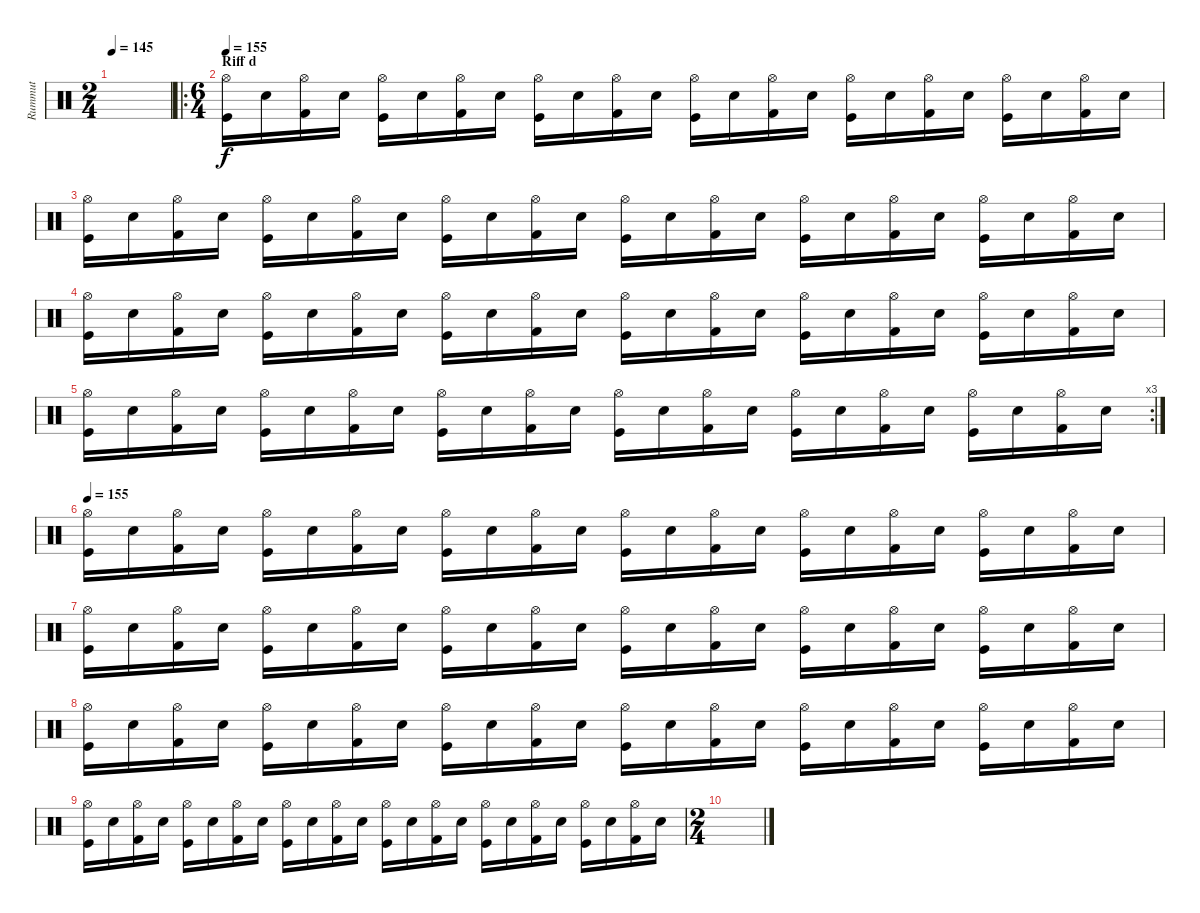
\track ("Rummut" "Rummut") {instrument percussion}
\staff {score}
\articulation defaults
\ts (2 4)
\tempo 145
\clef neutral
\ks c
|
\ro
\ts (6 4)
\section ("" "Riff d")
\tempo 155
("Hi-Hat (open)" "Kick (hit)").16 "Snare (hit) 2".16 ("Hi-Hat (open)" "Kick (hit) 2").16 "Snare (hit) 2".16 ("Hi-Hat (open)" "Kick (hit)").16 "Snare (hit) 2".16 ("Hi-Hat (open)" "Kick (hit) 2").16 "Snare (hit) 2".16 ("Hi-Hat (open)" "Kick (hit)").16 "Snare (hit) 2".16 ("Hi-Hat (open)" "Kick (hit) 2").16 "Snare (hit) 2".16 ("Hi-Hat (open)" "Kick (hit)").16 "Snare (hit) 2".16 ("Hi-Hat (open)" "Kick (hit) 2").16 "Snare (hit) 2".16 ("Hi-Hat (open)" "Kick (hit)").16 "Snare (hit) 2".16 ("Hi-Hat (open)" "Kick (hit) 2").16 "Snare (hit) 2".16 ("Hi-Hat (open)" "Kick (hit)").16 "Snare (hit) 2".16 ("Hi-Hat (open)" "Kick (hit) 2").16 "Snare (hit) 2".16 |
("Hi-Hat (open)" "Kick (hit)").16 "Snare (hit) 2".16 ("Hi-Hat (open)" "Kick (hit) 2").16 "Snare (hit) 2".16 ("Hi-Hat (open)" "Kick (hit)").16 "Snare (hit) 2".16 ("Hi-Hat (open)" "Kick (hit) 2").16 "Snare (hit) 2".16 ("Hi-Hat (open)" "Kick (hit)").16 "Snare (hit) 2".16 ("Hi-Hat (open)" "Kick (hit) 2").16 "Snare (hit) 2".16 ("Hi-Hat (open)" "Kick (hit)").16 "Snare (hit) 2".16 ("Hi-Hat (open)" "Kick (hit) 2").16 "Snare (hit) 2".16 ("Hi-Hat (open)" "Kick (hit)").16 "Snare (hit) 2".16 ("Hi-Hat (open)" "Kick (hit) 2").16 "Snare (hit) 2".16 ("Hi-Hat (open)" "Kick (hit)").16 "Snare (hit) 2".16 ("Hi-Hat (open)" "Kick (hit) 2").16 "Snare (hit) 2".16 |
("Hi-Hat (open)" "Kick (hit)").16 "Snare (hit) 2".16 ("Hi-Hat (open)" "Kick (hit) 2").16 "Snare (hit) 2".16 ("Hi-Hat (open)" "Kick (hit)").16 "Snare (hit) 2".16 ("Hi-Hat (open)" "Kick (hit) 2").16 "Snare (hit) 2".16 ("Hi-Hat (open)" "Kick (hit)").16 "Snare (hit) 2".16 ("Hi-Hat (open)" "Kick (hit) 2").16 "Snare (hit) 2".16 ("Hi-Hat (open)" "Kick (hit)").16 "Snare (hit) 2".16 ("Hi-Hat (open)" "Kick (hit) 2").16 "Snare (hit) 2".16 ("Hi-Hat (open)" "Kick (hit)").16 "Snare (hit) 2".16 ("Hi-Hat (open)" "Kick (hit) 2").16 "Snare (hit) 2".16 ("Hi-Hat (open)" "Kick (hit)").16 "Snare (hit) 2".16 ("Hi-Hat (open)" "Kick (hit) 2").16 "Snare (hit) 2".16 |
\rc 3
("Hi-Hat (open)" "Kick (hit)").16 "Snare (hit) 2".16 ("Hi-Hat (open)" "Kick (hit) 2").16 "Snare (hit) 2".16 ("Hi-Hat (open)" "Kick (hit)").16 "Snare (hit) 2".16 ("Hi-Hat (open)" "Kick (hit) 2").16 "Snare (hit) 2".16 ("Hi-Hat (open)" "Kick (hit)").16 "Snare (hit) 2".16 ("Hi-Hat (open)" "Kick (hit) 2").16 "Snare (hit) 2".16 ("Hi-Hat (open)" "Kick (hit)").16 "Snare (hit) 2".16 ("Hi-Hat (open)" "Kick (hit) 2").16 "Snare (hit) 2".16 ("Hi-Hat (open)" "Kick (hit)").16 "Snare (hit) 2".16 ("Hi-Hat (open)" "Kick (hit) 2").16 "Snare (hit) 2".16 ("Hi-Hat (open)" "Kick (hit)").16 "Snare (hit) 2".16 ("Hi-Hat (open)" "Kick (hit) 2").16 "Snare (hit) 2".16 |
\tempo 155
("Hi-Hat (open)" "Kick (hit)").16 "Snare (hit) 2".16 ("Hi-Hat (open)" "Kick (hit) 2").16 "Snare (hit) 2".16 ("Hi-Hat (open)" "Kick (hit)").16 "Snare (hit) 2".16 ("Hi-Hat (open)" "Kick (hit) 2").16 "Snare (hit) 2".16 ("Hi-Hat (open)" "Kick (hit)").16 "Snare (hit) 2".16 ("Hi-Hat (open)" "Kick (hit) 2").16 "Snare (hit) 2".16 ("Hi-Hat (open)" "Kick (hit)").16 "Snare (hit) 2".16 ("Hi-Hat (open)" "Kick (hit) 2").16 "Snare (hit) 2".16 ("Hi-Hat (open)" "Kick (hit)").16 "Snare (hit) 2".16 ("Hi-Hat (open)" "Kick (hit) 2").16 "Snare (hit) 2".16 ("Hi-Hat (open)" "Kick (hit)").16 "Snare (hit) 2".16 ("Hi-Hat (open)" "Kick (hit) 2").16 "Snare (hit) 2".16 |
("Hi-Hat (open)" "Kick (hit)").16 "Snare (hit) 2".16 ("Hi-Hat (open)" "Kick (hit) 2").16 "Snare (hit) 2".16 ("Hi-Hat (open)" "Kick (hit)").16 "Snare (hit) 2".16 ("Hi-Hat (open)" "Kick (hit) 2").16 "Snare (hit) 2".16 ("Hi-Hat (open)" "Kick (hit)").16 "Snare (hit) 2".16 ("Hi-Hat (open)" "Kick (hit) 2").16 "Snare (hit) 2".16 ("Hi-Hat (open)" "Kick (hit)").16 "Snare (hit) 2".16 ("Hi-Hat (open)" "Kick (hit) 2").16 "Snare (hit) 2".16 ("Hi-Hat (open)" "Kick (hit)").16 "Snare (hit) 2".16 ("Hi-Hat (open)" "Kick (hit) 2").16 "Snare (hit) 2".16 ("Hi-Hat (open)" "Kick (hit)").16 "Snare (hit) 2".16 ("Hi-Hat (open)" "Kick (hit) 2").16 "Snare (hit) 2".16 |
("Hi-Hat (open)" "Kick (hit)").16 "Snare (hit) 2".16 ("Hi-Hat (open)" "Kick (hit) 2").16 "Snare (hit) 2".16 ("Hi-Hat (open)" "Kick (hit)").16 "Snare (hit) 2".16 ("Hi-Hat (open)" "Kick (hit) 2").16 "Snare (hit) 2".16 ("Hi-Hat (open)" "Kick (hit)").16 "Snare (hit) 2".16 ("Hi-Hat (open)" "Kick (hit) 2").16 "Snare (hit) 2".16 ("Hi-Hat (open)" "Kick (hit)").16 "Snare (hit) 2".16 ("Hi-Hat (open)" "Kick (hit) 2").16 "Snare (hit) 2".16 ("Hi-Hat (open)" "Kick (hit)").16 "Snare (hit) 2".16 ("Hi-Hat (open)" "Kick (hit) 2").16 "Snare (hit) 2".16 ("Hi-Hat (open)" "Kick (hit)").16 "Snare (hit) 2".16 ("Hi-Hat (open)" "Kick (hit) 2").16 "Snare (hit) 2".16 |
("Hi-Hat (open)" "Kick (hit)").16 "Snare (hit) 2".16 ("Hi-Hat (open)" "Kick (hit) 2").16 "Snare (hit) 2".16 ("Hi-Hat (open)" "Kick (hit)").16 "Snare (hit) 2".16 ("Hi-Hat (open)" "Kick (hit) 2").16 "Snare (hit) 2".16 ("Hi-Hat (open)" "Kick (hit)").16 "Snare (hit) 2".16 ("Hi-Hat (open)" "Kick (hit) 2").16 "Snare (hit) 2".16 ("Hi-Hat (open)" "Kick (hit)").16 "Snare (hit) 2".16 ("Hi-Hat (open)" "Kick (hit) 2").16 "Snare (hit) 2".16 ("Hi-Hat (open)" "Kick (hit)").16 "Snare (hit) 2".16 ("Hi-Hat (open)" "Kick (hit) 2").16 "Snare (hit) 2".16 ("Hi-Hat (open)" "Kick (hit)").16 "Snare (hit) 2".16 ("Hi-Hat (open)" "Kick (hit) 2").16 "Snare (hit) 2".16 |
\ts (2 4)
